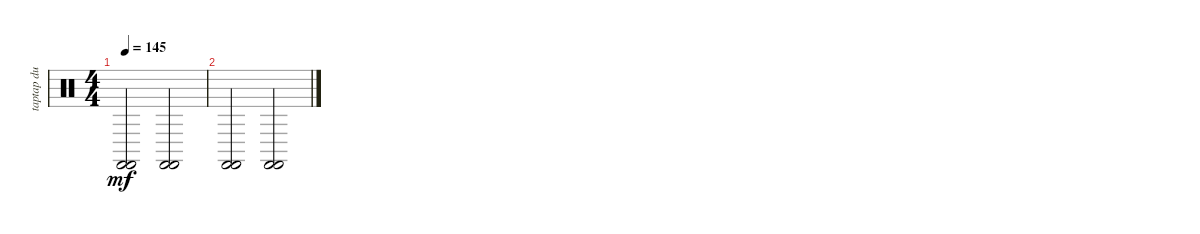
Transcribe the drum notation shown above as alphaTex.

\track ("taptap du pied" "taptap du ") {instrument percussion}
\staff {score}
\articulation defaults
\ts (4 4)
\tempo 145
\clef neutral
\ks c
("Castanets (hit)" "Castanets (hit)").2{dy mf} ("Castanets (hit)" "Castanets (hit)").2 |
("Castanets (hit)" "Castanets (hit)").2 ("Castanets (hit)" "Castanets (hit)").2
